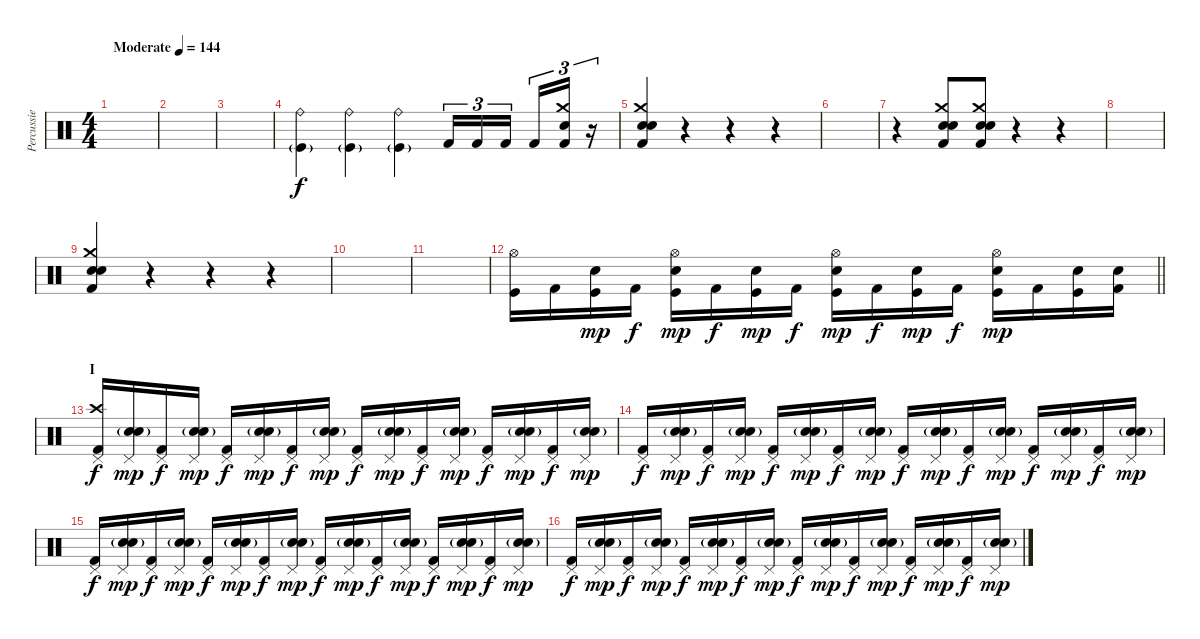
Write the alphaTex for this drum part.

\track ("Percussie" "Percussie") {instrument percussion}
\staff {score}
\articulation defaults
\ts (4 4)
\tempo (144 "Moderate")
\clef neutral
\ks c
|
|
|
("Ride (bell)" "Kick (hit)"{g}).4 ("Ride (bell)" "Kick (hit)"{g}).4 ("Ride (bell)" "Kick (hit)"{g}).4 "Kick (hit) 2".16{tu (3 2)} "Kick (hit) 2".16{tu (3 2)} "Kick (hit) 2".16{tu (3 2) beam splitsecondary} "Kick (hit) 2".16{tu (3 2)} ("Crash medium (hit)" "Electric Snare (hit)" "Kick (hit) 2").16{tu (3 2)} r.16{tu (3 2)} |
("Crash medium (hit)" "Electric Snare (hit)" "Snare (hit) 2" "Kick (hit) 2").4 r.4 r.4 r.4 |
|
r.4 ("Crash medium (hit)" "Electric Snare (hit)" "Snare (hit) 2" "Kick (hit) 2").8 ("Crash medium (hit)" "Electric Snare (hit)" "Snare (hit) 2" "Kick (hit) 2").8 r.4 r.4 |
|
("Crash medium (hit)" "Electric Snare (hit)" "Snare (hit) 2" "Kick (hit) 2").4 r.4 r.4 r.4 |
|
|
\barLineRight lightlight
("Kick (hit)" "Hi-Hat (open)").16 "Kick (hit) 2".16{dy f} ("Electric Snare (hit)" "Kick (hit)").16{dy mp} "Kick (hit) 2".16{dy f} ("Electric Snare (hit)" "Kick (hit)" "Hi-Hat (open)").16{dy mp} "Kick (hit) 2".16{dy f} ("Electric Snare (hit)" "Kick (hit)").16{dy mp} "Kick (hit) 2".16{dy f} ("Electric Snare (hit)" "Kick (hit)" "Hi-Hat (open)").16{dy mp} "Kick (hit) 2".16{dy f} ("Electric Snare (hit)" "Kick (hit)").16{dy mp} "Kick (hit) 2".16{dy f} ("Electric Snare (hit)" "Kick (hit)" "Hi-Hat (open)").16{dy mp} "Kick (hit) 2".16 ("Electric Snare (hit)" "Kick (hit)").16 ("Electric Snare (hit)" "Kick (hit) 2").16 |
\section ("" "I")
("Crash high (hit)" "Kick (hit) 2" "Pedal Hi-Hat (hit)").16{dy f} ("Electric Snare (hit)" "Snare (hit) 2"{g} "Pedal Hi-Hat (hit)").16{dy mp} ("Kick (hit) 2" "Pedal Hi-Hat (hit)").16{dy f} ("Electric Snare (hit)" "Snare (hit) 2"{g} "Pedal Hi-Hat (hit)").16{dy mp} ("Kick (hit) 2" "Pedal Hi-Hat (hit)").16{dy f} ("Electric Snare (hit)" "Snare (hit) 2"{g} "Pedal Hi-Hat (hit)").16{dy mp} ("Kick (hit) 2" "Pedal Hi-Hat (hit)").16{dy f} ("Electric Snare (hit)" "Snare (hit) 2"{g} "Pedal Hi-Hat (hit)").16{dy mp} ("Kick (hit) 2" "Pedal Hi-Hat (hit)").16{dy f} ("Electric Snare (hit)" "Snare (hit) 2"{g} "Pedal Hi-Hat (hit)").16{dy mp} ("Kick (hit) 2" "Pedal Hi-Hat (hit)").16{dy f} ("Electric Snare (hit)" "Snare (hit) 2"{g} "Pedal Hi-Hat (hit)").16{dy mp} ("Kick (hit) 2" "Pedal Hi-Hat (hit)").16{dy f} ("Electric Snare (hit)" "Snare (hit) 2"{g} "Pedal Hi-Hat (hit)").16{dy mp} ("Kick (hit) 2" "Pedal Hi-Hat (hit)").16{dy f} ("Electric Snare (hit)" "Snare (hit) 2"{g} "Pedal Hi-Hat (hit)").16{dy mp} |
("Kick (hit) 2" "Pedal Hi-Hat (hit)").16{dy f} ("Electric Snare (hit)" "Snare (hit) 2"{g} "Pedal Hi-Hat (hit)").16{dy mp} ("Kick (hit) 2" "Pedal Hi-Hat (hit)").16{dy f} ("Electric Snare (hit)" "Snare (hit) 2"{g} "Pedal Hi-Hat (hit)").16{dy mp} ("Kick (hit) 2" "Pedal Hi-Hat (hit)").16{dy f} ("Electric Snare (hit)" "Snare (hit) 2"{g} "Pedal Hi-Hat (hit)").16{dy mp} ("Kick (hit) 2" "Pedal Hi-Hat (hit)").16{dy f} ("Electric Snare (hit)" "Snare (hit) 2"{g} "Pedal Hi-Hat (hit)").16{dy mp} ("Kick (hit) 2" "Pedal Hi-Hat (hit)").16{dy f} ("Electric Snare (hit)" "Snare (hit) 2"{g} "Pedal Hi-Hat (hit)").16{dy mp} ("Kick (hit) 2" "Pedal Hi-Hat (hit)").16{dy f} ("Electric Snare (hit)" "Snare (hit) 2"{g} "Pedal Hi-Hat (hit)").16{dy mp} ("Kick (hit) 2" "Pedal Hi-Hat (hit)").16{dy f} ("Electric Snare (hit)" "Snare (hit) 2"{g} "Pedal Hi-Hat (hit)").16{dy mp} ("Kick (hit) 2" "Pedal Hi-Hat (hit)").16{dy f} ("Electric Snare (hit)" "Snare (hit) 2"{g} "Pedal Hi-Hat (hit)").16{dy mp} |
("Kick (hit) 2" "Pedal Hi-Hat (hit)").16{dy f} ("Electric Snare (hit)" "Snare (hit) 2"{g} "Pedal Hi-Hat (hit)").16{dy mp} ("Kick (hit) 2" "Pedal Hi-Hat (hit)").16{dy f} ("Electric Snare (hit)" "Snare (hit) 2"{g} "Pedal Hi-Hat (hit)").16{dy mp} ("Kick (hit) 2" "Pedal Hi-Hat (hit)").16{dy f} ("Electric Snare (hit)" "Snare (hit) 2"{g} "Pedal Hi-Hat (hit)").16{dy mp} ("Kick (hit) 2" "Pedal Hi-Hat (hit)").16{dy f} ("Electric Snare (hit)" "Snare (hit) 2"{g} "Pedal Hi-Hat (hit)").16{dy mp} ("Kick (hit) 2" "Pedal Hi-Hat (hit)").16{dy f} ("Electric Snare (hit)" "Snare (hit) 2"{g} "Pedal Hi-Hat (hit)").16{dy mp} ("Kick (hit) 2" "Pedal Hi-Hat (hit)").16{dy f} ("Electric Snare (hit)" "Snare (hit) 2"{g} "Pedal Hi-Hat (hit)").16{dy mp} ("Kick (hit) 2" "Pedal Hi-Hat (hit)").16{dy f} ("Electric Snare (hit)" "Snare (hit) 2"{g} "Pedal Hi-Hat (hit)").16{dy mp} ("Kick (hit) 2" "Pedal Hi-Hat (hit)").16{dy f} ("Electric Snare (hit)" "Snare (hit) 2"{g} "Pedal Hi-Hat (hit)").16{dy mp} |
("Kick (hit) 2" "Pedal Hi-Hat (hit)").16{dy f} ("Electric Snare (hit)" "Snare (hit) 2"{g} "Pedal Hi-Hat (hit)").16{dy mp} ("Kick (hit) 2" "Pedal Hi-Hat (hit)").16{dy f} ("Electric Snare (hit)" "Snare (hit) 2"{g} "Pedal Hi-Hat (hit)").16{dy mp} ("Kick (hit) 2" "Pedal Hi-Hat (hit)").16{dy f} ("Electric Snare (hit)" "Snare (hit) 2"{g} "Pedal Hi-Hat (hit)").16{dy mp} ("Kick (hit) 2" "Pedal Hi-Hat (hit)").16{dy f} ("Electric Snare (hit)" "Snare (hit) 2"{g} "Pedal Hi-Hat (hit)").16{dy mp} ("Kick (hit) 2" "Pedal Hi-Hat (hit)").16{dy f} ("Electric Snare (hit)" "Snare (hit) 2"{g} "Pedal Hi-Hat (hit)").16{dy mp} ("Kick (hit) 2" "Pedal Hi-Hat (hit)").16{dy f} ("Electric Snare (hit)" "Snare (hit) 2"{g} "Pedal Hi-Hat (hit)").16{dy mp} ("Kick (hit) 2" "Pedal Hi-Hat (hit)").16{dy f} ("Electric Snare (hit)" "Snare (hit) 2"{g} "Pedal Hi-Hat (hit)").16{dy mp} ("Kick (hit) 2" "Pedal Hi-Hat (hit)").16{dy f} ("Electric Snare (hit)" "Snare (hit) 2"{g} "Pedal Hi-Hat (hit)").16{dy mp}
